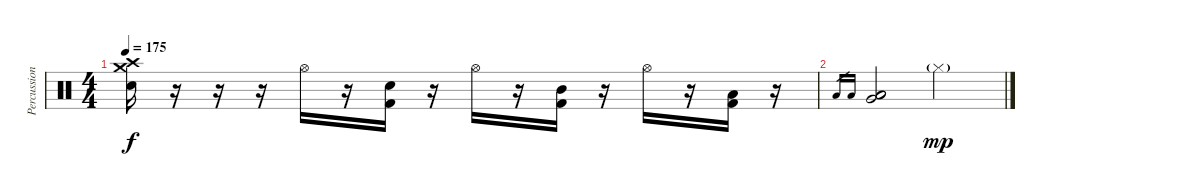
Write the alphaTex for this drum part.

\track ("Percussion" "Percussion") {instrument percussion}
\staff {score}
\articulation defaults
\ts (4 4)
\tempo 175
\clef neutral
\ks c
("Crash high (hit)" "Crash medium (hit)" "Electric Snare (hit)").16{dy f} r.16 r.16 r.16 "Hi-Hat (open)".16 r.16 ("Electric Snare (hit)" "Kick (hit) 2").16 r.16 "Hi-Hat (open)".16 r.16 ("Mid Tom (hit)" "Kick (hit) 2").16 r.16 "Hi-Hat (open)".16 r.16 ("Low Tom (hit)" "Kick (hit) 2").16 r.16 |
"Low Tom (hit)".16{gr} "Low Tom (hit)".16{gr} ("Low Tom (hit)" "Low Tom (hit)" "Very Low Tom (hit)").2{bd 60} "Hi-Hat (closed)"{g}.2{dy mp}
